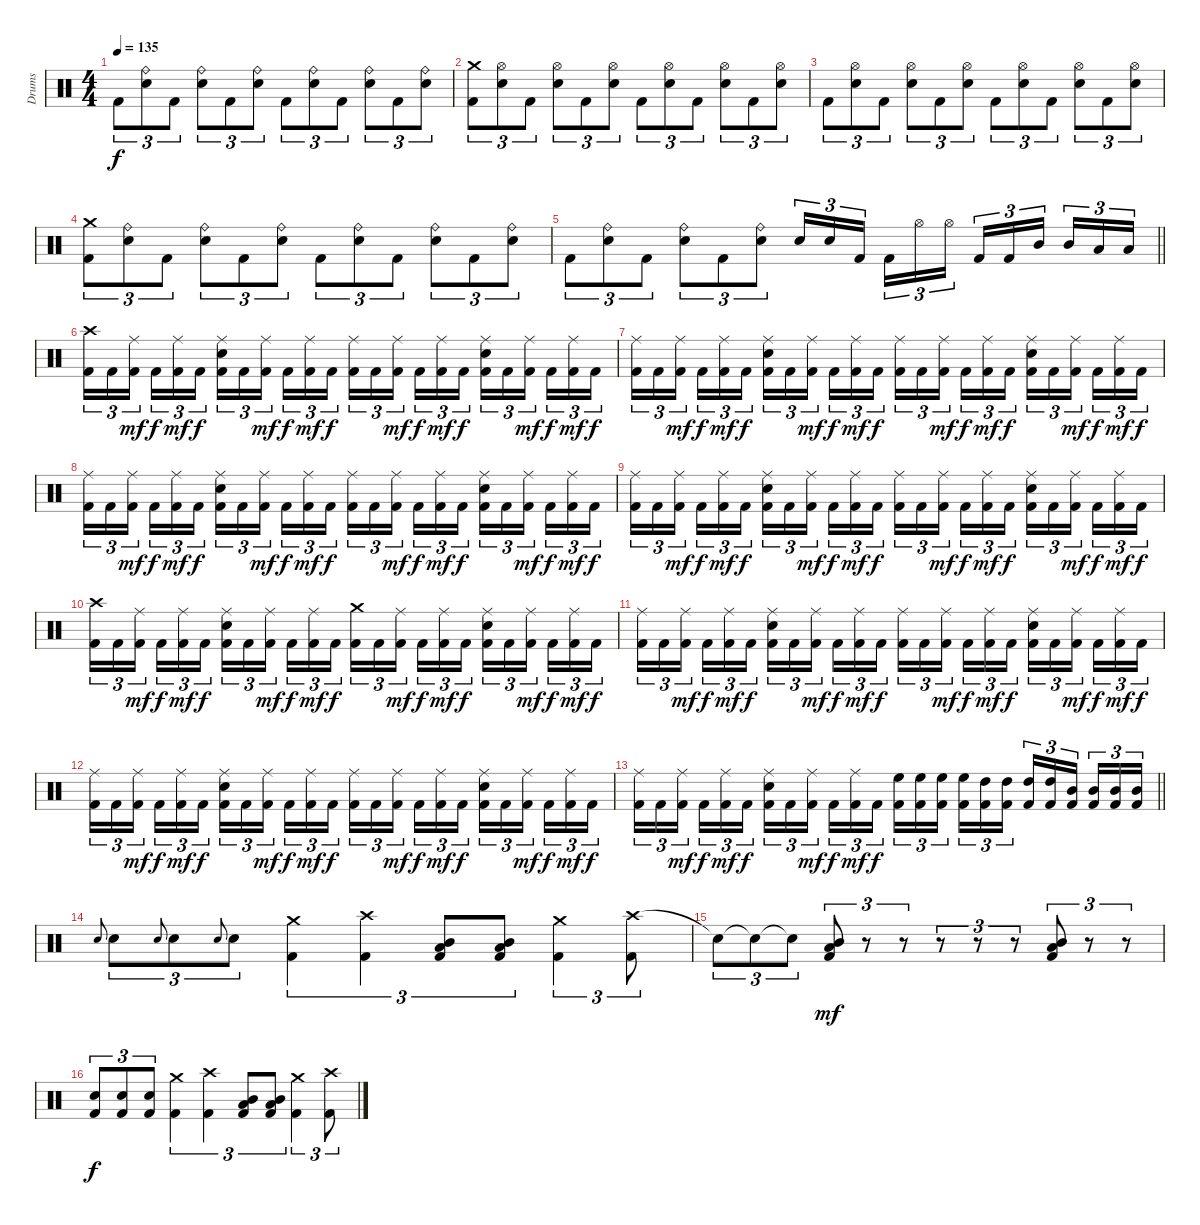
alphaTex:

\track ("Drums" "Drums") {instrument percussion}
\staff {score}
\articulation defaults
\ts (4 4)
\tempo 135
\clef neutral
\ks c "Kick (hit) 2".8{tu (3 2) dy f}
("Ride (bell)" "Electric Snare (hit)").8{tu (3 2)} "Kick (hit) 2".8{tu (3 2)} ("Ride (bell)" "Electric Snare (hit)").8{tu (3 2)} "Kick (hit) 2".8{tu (3 2)} ("Ride (bell)" "Electric Snare (hit)").8{tu (3 2)} "Kick (hit) 2".8{tu (3 2)} ("Ride (bell)" "Electric Snare (hit)").8{tu (3 2)} "Kick (hit) 2".8{tu (3 2)} ("Ride (bell)" "Electric Snare (hit)").8{tu (3 2)} "Kick (hit) 2".8{tu (3 2)} ("Ride (bell)" "Electric Snare (hit)").8{tu (3 2)} |
("Crash medium (hit)" "Kick (hit) 2").8{tu (3 2)} ("Hi-Hat (open)" "Electric Snare (hit)").8{tu (3 2)} "Kick (hit) 2".8{tu (3 2)} ("Hi-Hat (open)" "Electric Snare (hit)").8{tu (3 2)} "Kick (hit) 2".8{tu (3 2)} ("Hi-Hat (open)" "Electric Snare (hit)").8{tu (3 2)} "Kick (hit) 2".8{tu (3 2)} ("Hi-Hat (open)" "Electric Snare (hit)").8{tu (3 2)} "Kick (hit) 2".8{tu (3 2)} ("Hi-Hat (open)" "Electric Snare (hit)").8{tu (3 2)} "Kick (hit) 2".8{tu (3 2)} ("Hi-Hat (open)" "Electric Snare (hit)").8{tu (3 2)} |
"Kick (hit) 2".8{tu (3 2)} ("Hi-Hat (open)" "Electric Snare (hit)").8{tu (3 2)} "Kick (hit) 2".8{tu (3 2)} ("Hi-Hat (open)" "Electric Snare (hit)").8{tu (3 2)} "Kick (hit) 2".8{tu (3 2)} ("Hi-Hat (open)" "Electric Snare (hit)").8{tu (3 2)} "Kick (hit) 2".8{tu (3 2)} ("Hi-Hat (open)" "Electric Snare (hit)").8{tu (3 2)} "Kick (hit) 2".8{tu (3 2)} ("Hi-Hat (open)" "Electric Snare (hit)").8{tu (3 2)} "Kick (hit) 2".8{tu (3 2)} ("Hi-Hat (open)" "Electric Snare (hit)").8{tu (3 2)} |
("Crash medium (hit)" "Kick (hit) 2").8{tu (3 2)} ("Ride (bell)" "Electric Snare (hit)").8{tu (3 2)} "Kick (hit) 2".8{tu (3 2)} ("Ride (bell)" "Electric Snare (hit)").8{tu (3 2)} "Kick (hit) 2".8{tu (3 2)} ("Ride (bell)" "Electric Snare (hit)").8{tu (3 2)} "Kick (hit) 2".8{tu (3 2)} ("Ride (bell)" "Electric Snare (hit)").8{tu (3 2)} "Kick (hit) 2".8{tu (3 2)} ("Ride (bell)" "Electric Snare (hit)").8{tu (3 2)} "Kick (hit) 2".8{tu (3 2)} ("Ride (bell)" "Electric Snare (hit)").8{tu (3 2)} |
\barLineRight lightlight "Kick (hit) 2".8{tu (3 2)}
("Ride (bell)" "Electric Snare (hit)").8{tu (3 2)} "Kick (hit) 2".8{tu (3 2)} ("Ride (bell)" "Electric Snare (hit)").8{tu (3 2)} "Kick (hit) 2".8{tu (3 2)} ("Ride (bell)" "Electric Snare (hit)").8{tu (3 2)} "Electric Snare (hit)".16{tu (3 2)} "Electric Snare (hit)".16{tu (3 2)} "Kick (hit) 2".16{tu (3 2) beam splitsecondary} "Kick (hit) 2".16{tu (3 2)} "Hi-Hat (open)".16{tu (3 2)} "Hi-Hat (open)".16{tu (3 2)} "Kick (hit) 2".16{tu (3 2)} "Kick (hit) 2".16{tu (3 2)} "Mid Tom (hit)".16{tu (3 2) beam splitsecondary} "Mid Tom (hit)".16{tu (3 2)} "Low Tom (hit)".16{tu (3 2)} "Low Tom (hit)".16{tu (3 2)} |
("Crash high (hit)" "Kick (hit) 2").16{tu (3 2)} "Kick (hit) 2".16{tu (3 2)} ("Ride (middle)" "Kick (hit) 2").16{tu (3 2) dy mf beam splitsecondary} "Kick (hit) 2".16{tu (3 2) dy f} ("Ride (middle)" "Kick (hit) 2").16{tu (3 2) dy mf} "Kick (hit) 2".16{tu (3 2) dy f} ("Ride (middle)" "Electric Snare (hit)" "Kick (hit) 2").16{tu (3 2)} "Kick (hit) 2".16{tu (3 2)} ("Ride (middle)" "Kick (hit) 2").16{tu (3 2) dy mf beam splitsecondary} "Kick (hit) 2".16{tu (3 2) dy f} ("Ride (middle)" "Kick (hit) 2").16{tu (3 2) dy mf} "Kick (hit) 2".16{tu (3 2) dy f} ("Ride (middle)" "Kick (hit) 2").16{tu (3 2)} "Kick (hit) 2".16{tu (3 2)} ("Ride (middle)" "Kick (hit) 2").16{tu (3 2) dy mf beam splitsecondary} "Kick (hit) 2".16{tu (3 2) dy f} ("Ride (middle)" "Kick (hit) 2").16{tu (3 2) dy mf} "Kick (hit) 2".16{tu (3 2) dy f} ("Ride (middle)" "Electric Snare (hit)" "Kick (hit) 2").16{tu (3 2)} "Kick (hit) 2".16{tu (3 2)} ("Ride (middle)" "Kick (hit) 2").16{tu (3 2) dy mf beam splitsecondary} "Kick (hit) 2".16{tu (3 2) dy f} ("Ride (middle)" "Kick (hit) 2").16{tu (3 2) dy mf} "Kick (hit) 2".16{tu (3 2) dy f} |
("Ride (middle)" "Kick (hit) 2").16{tu (3 2)} "Kick (hit) 2".16{tu (3 2)} ("Ride (middle)" "Kick (hit) 2").16{tu (3 2) dy mf beam splitsecondary} "Kick (hit) 2".16{tu (3 2) dy f} ("Ride (middle)" "Kick (hit) 2").16{tu (3 2) dy mf} "Kick (hit) 2".16{tu (3 2) dy f} ("Ride (middle)" "Electric Snare (hit)" "Kick (hit) 2").16{tu (3 2)} "Kick (hit) 2".16{tu (3 2)} ("Ride (middle)" "Kick (hit) 2").16{tu (3 2) dy mf beam splitsecondary} "Kick (hit) 2".16{tu (3 2) dy f} ("Ride (middle)" "Kick (hit) 2").16{tu (3 2) dy mf} "Kick (hit) 2".16{tu (3 2) dy f} ("Ride (middle)" "Kick (hit) 2").16{tu (3 2)} "Kick (hit) 2".16{tu (3 2)} ("Ride (middle)" "Kick (hit) 2").16{tu (3 2) dy mf beam splitsecondary} "Kick (hit) 2".16{tu (3 2) dy f} ("Ride (middle)" "Kick (hit) 2").16{tu (3 2) dy mf} "Kick (hit) 2".16{tu (3 2) dy f} ("Ride (middle)" "Electric Snare (hit)" "Kick (hit) 2").16{tu (3 2)} "Kick (hit) 2".16{tu (3 2)} ("Ride (middle)" "Kick (hit) 2").16{tu (3 2) dy mf beam splitsecondary} "Kick (hit) 2".16{tu (3 2) dy f} ("Ride (middle)" "Kick (hit) 2").16{tu (3 2) dy mf} "Kick (hit) 2".16{tu (3 2) dy f} |
("Ride (middle)" "Kick (hit) 2").16{tu (3 2)} "Kick (hit) 2".16{tu (3 2)} ("Ride (middle)" "Kick (hit) 2").16{tu (3 2) dy mf beam splitsecondary} "Kick (hit) 2".16{tu (3 2) dy f} ("Ride (middle)" "Kick (hit) 2").16{tu (3 2) dy mf} "Kick (hit) 2".16{tu (3 2) dy f} ("Ride (middle)" "Electric Snare (hit)" "Kick (hit) 2").16{tu (3 2)} "Kick (hit) 2".16{tu (3 2)} ("Ride (middle)" "Kick (hit) 2").16{tu (3 2) dy mf beam splitsecondary} "Kick (hit) 2".16{tu (3 2) dy f} ("Ride (middle)" "Kick (hit) 2").16{tu (3 2) dy mf} "Kick (hit) 2".16{tu (3 2) dy f} ("Ride (middle)" "Kick (hit) 2").16{tu (3 2)} "Kick (hit) 2".16{tu (3 2)} ("Ride (middle)" "Kick (hit) 2").16{tu (3 2) dy mf beam splitsecondary} "Kick (hit) 2".16{tu (3 2) dy f} ("Ride (middle)" "Kick (hit) 2").16{tu (3 2) dy mf} "Kick (hit) 2".16{tu (3 2) dy f} ("Ride (middle)" "Electric Snare (hit)" "Kick (hit) 2").16{tu (3 2)} "Kick (hit) 2".16{tu (3 2)} ("Ride (middle)" "Kick (hit) 2").16{tu (3 2) dy mf beam splitsecondary} "Kick (hit) 2".16{tu (3 2) dy f} ("Ride (middle)" "Kick (hit) 2").16{tu (3 2) dy mf} "Kick (hit) 2".16{tu (3 2) dy f} |
("Ride (middle)" "Kick (hit) 2").16{tu (3 2)} "Kick (hit) 2".16{tu (3 2)} ("Ride (middle)" "Kick (hit) 2").16{tu (3 2) dy mf beam splitsecondary} "Kick (hit) 2".16{tu (3 2) dy f} ("Ride (middle)" "Kick (hit) 2").16{tu (3 2) dy mf} "Kick (hit) 2".16{tu (3 2) dy f} ("Ride (middle)" "Electric Snare (hit)" "Kick (hit) 2").16{tu (3 2)} "Kick (hit) 2".16{tu (3 2)} ("Ride (middle)" "Kick (hit) 2").16{tu (3 2) dy mf beam splitsecondary} "Kick (hit) 2".16{tu (3 2) dy f} ("Ride (middle)" "Kick (hit) 2").16{tu (3 2) dy mf} "Kick (hit) 2".16{tu (3 2) dy f} ("Ride (middle)" "Kick (hit) 2").16{tu (3 2)} "Kick (hit) 2".16{tu (3 2)} ("Ride (middle)" "Kick (hit) 2").16{tu (3 2) dy mf beam splitsecondary} "Kick (hit) 2".16{tu (3 2) dy f} ("Ride (middle)" "Kick (hit) 2").16{tu (3 2) dy mf} "Kick (hit) 2".16{tu (3 2) dy f} ("Ride (middle)" "Electric Snare (hit)" "Kick (hit) 2").16{tu (3 2)} "Kick (hit) 2".16{tu (3 2)} ("Ride (middle)" "Kick (hit) 2").16{tu (3 2) dy mf beam splitsecondary} "Kick (hit) 2".16{tu (3 2) dy f} ("Ride (middle)" "Kick (hit) 2").16{tu (3 2) dy mf} "Kick (hit) 2".16{tu (3 2) dy f} |
("Crash high (hit)" "Kick (hit) 2").16{tu (3 2)} "Kick (hit) 2".16{tu (3 2)} ("Ride (middle)" "Kick (hit) 2").16{tu (3 2) dy mf beam splitsecondary} "Kick (hit) 2".16{tu (3 2) dy f} ("Ride (middle)" "Kick (hit) 2").16{tu (3 2) dy mf} "Kick (hit) 2".16{tu (3 2) dy f} ("Ride (middle)" "Electric Snare (hit)" "Kick (hit) 2").16{tu (3 2)} "Kick (hit) 2".16{tu (3 2)} ("Ride (middle)" "Kick (hit) 2").16{tu (3 2) dy mf beam splitsecondary} "Kick (hit) 2".16{tu (3 2) dy f} ("Ride (middle)" "Kick (hit) 2").16{tu (3 2) dy mf} "Kick (hit) 2".16{tu (3 2) dy f} ("Crash medium (hit)" "Kick (hit) 2").16{tu (3 2)} "Kick (hit) 2".16{tu (3 2)} ("Ride (middle)" "Kick (hit) 2").16{tu (3 2) dy mf beam splitsecondary} "Kick (hit) 2".16{tu (3 2) dy f} ("Ride (middle)" "Kick (hit) 2").16{tu (3 2) dy mf} "Kick (hit) 2".16{tu (3 2) dy f} ("Ride (middle)" "Electric Snare (hit)" "Kick (hit) 2").16{tu (3 2)} "Kick (hit) 2".16{tu (3 2)} ("Ride (middle)" "Kick (hit) 2").16{tu (3 2) dy mf beam splitsecondary} "Kick (hit) 2".16{tu (3 2) dy f} ("Ride (middle)" "Kick (hit) 2").16{tu (3 2) dy mf} "Kick (hit) 2".16{tu (3 2) dy f} |
("Ride (middle)" "Kick (hit) 2").16{tu (3 2)} "Kick (hit) 2".16{tu (3 2)} ("Ride (middle)" "Kick (hit) 2").16{tu (3 2) dy mf beam splitsecondary} "Kick (hit) 2".16{tu (3 2) dy f} ("Ride (middle)" "Kick (hit) 2").16{tu (3 2) dy mf} "Kick (hit) 2".16{tu (3 2) dy f} ("Ride (middle)" "Electric Snare (hit)" "Kick (hit) 2").16{tu (3 2)} "Kick (hit) 2".16{tu (3 2)} ("Ride (middle)" "Kick (hit) 2").16{tu (3 2) dy mf beam splitsecondary} "Kick (hit) 2".16{tu (3 2) dy f} ("Ride (middle)" "Kick (hit) 2").16{tu (3 2) dy mf} "Kick (hit) 2".16{tu (3 2) dy f} ("Ride (middle)" "Kick (hit) 2").16{tu (3 2)} "Kick (hit) 2".16{tu (3 2)} ("Ride (middle)" "Kick (hit) 2").16{tu (3 2) dy mf beam splitsecondary} "Kick (hit) 2".16{tu (3 2) dy f} ("Ride (middle)" "Kick (hit) 2").16{tu (3 2) dy mf} "Kick (hit) 2".16{tu (3 2) dy f} ("Ride (middle)" "Electric Snare (hit)" "Kick (hit) 2").16{tu (3 2)} "Kick (hit) 2".16{tu (3 2)} ("Ride (middle)" "Kick (hit) 2").16{tu (3 2) dy mf beam splitsecondary} "Kick (hit) 2".16{tu (3 2) dy f} ("Ride (middle)" "Kick (hit) 2").16{tu (3 2) dy mf} "Kick (hit) 2".16{tu (3 2) dy f} |
("Ride (middle)" "Kick (hit) 2").16{tu (3 2)} "Kick (hit) 2".16{tu (3 2)} ("Ride (middle)" "Kick (hit) 2").16{tu (3 2) dy mf beam splitsecondary} "Kick (hit) 2".16{tu (3 2) dy f} ("Ride (middle)" "Kick (hit) 2").16{tu (3 2) dy mf} "Kick (hit) 2".16{tu (3 2) dy f} ("Ride (middle)" "Electric Snare (hit)" "Kick (hit) 2").16{tu (3 2)} "Kick (hit) 2".16{tu (3 2)} ("Ride (middle)" "Kick (hit) 2").16{tu (3 2) dy mf beam splitsecondary} "Kick (hit) 2".16{tu (3 2) dy f} ("Ride (middle)" "Kick (hit) 2").16{tu (3 2) dy mf} "Kick (hit) 2".16{tu (3 2) dy f} ("Ride (middle)" "Kick (hit) 2").16{tu (3 2)} "Kick (hit) 2".16{tu (3 2)} ("Ride (middle)" "Kick (hit) 2").16{tu (3 2) dy mf beam splitsecondary} "Kick (hit) 2".16{tu (3 2) dy f} ("Ride (middle)" "Kick (hit) 2").16{tu (3 2) dy mf} "Kick (hit) 2".16{tu (3 2) dy f} ("Ride (middle)" "Electric Snare (hit)" "Kick (hit) 2").16{tu (3 2)} "Kick (hit) 2".16{tu (3 2)} ("Ride (middle)" "Kick (hit) 2").16{tu (3 2) dy mf beam splitsecondary} "Kick (hit) 2".16{tu (3 2) dy f} ("Ride (middle)" "Kick (hit) 2").16{tu (3 2) dy mf} "Kick (hit) 2".16{tu (3 2) dy f} |
\barLineRight lightlight
("Ride (middle)" "Kick (hit) 2").16{tu (3 2)} "Kick (hit) 2".16{tu (3 2)} ("Ride (middle)" "Kick (hit) 2").16{tu (3 2) dy mf beam splitsecondary} "Kick (hit) 2".16{tu (3 2) dy f} ("Ride (middle)" "Kick (hit) 2").16{tu (3 2) dy mf} "Kick (hit) 2".16{tu (3 2) dy f} ("Ride (middle)" "Electric Snare (hit)" "Kick (hit) 2").16{tu (3 2)} "Kick (hit) 2".16{tu (3 2)} ("Ride (middle)" "Kick (hit) 2").16{tu (3 2) dy mf beam splitsecondary} "Kick (hit) 2".16{tu (3 2) dy f} ("Ride (middle)" "Kick (hit) 2").16{tu (3 2) dy mf} "Kick (hit) 2".16{tu (3 2) dy f} ("High Floor Tom (hit)" "Kick (hit) 2").16{tu (3 2)} ("High Floor Tom (hit)" "Kick (hit) 2").16{tu (3 2)} ("High Floor Tom (hit)" "Kick (hit) 2").16{tu (3 2) beam splitsecondary} ("High Floor Tom (hit)" "Kick (hit) 2").16{tu (3 2)} ("High Tom (hit)" "Kick (hit) 2").16{tu (3 2)} ("High Tom (hit)" "Kick (hit) 2").16{tu (3 2)} ("High Tom (hit)" "Kick (hit) 2").16{tu (3 2)} ("High Tom (hit)" "Kick (hit) 2").16{tu (3 2)} ("Mid Tom (hit)" "Kick (hit) 2").16{tu (3 2) beam splitsecondary} ("Mid Tom (hit)" "Kick (hit) 2").16{tu (3 2)} ("Mid Tom (hit)" "Kick (hit) 2").16{tu (3 2)} ("Mid Tom (hit)" "Kick (hit) 2").16{tu (3 2)} |
"Snare (hit) 2".8{gr onbeat} "Snare (hit) 2".8{tu (3 2)} "Snare (hit) 2".8{gr onbeat} "Snare (hit) 2".8{tu (3 2)} "Snare (hit) 2".8{gr onbeat} "Snare (hit) 2".8{tu (3 2)} ("Crash medium (hit)" "Kick (hit) 2").4{tu (3 2)} ("Crash high (hit)" "Kick (hit) 2").4{tu (3 2)} ("Mid Tom (hit)" "Low Tom (hit)" "Kick (hit) 2").8{tu (3 2)} ("Mid Tom (hit)" "Low Tom (hit)" "Kick (hit) 2").8{tu (3 2)} ("Crash medium (hit)" "Kick (hit) 2").4{tu (3 2)} ("Crash high (hit)" "Kick (hit) 2").8{tu (3 2)} |
"Snare (hit)"{t}.8{tu (3 2)} "Snare (hit)"{t}.8{tu (3 2)} "Snare (hit)"{t}.8{tu (3 2)} ("Low Tom (hit)" "Mid Tom (hit)" "Kick (hit) 2").8{tu (3 2) dy mf} r.8{tu (3 2)} r.8{tu (3 2)} r.8{tu (3 2)} r.8{tu (3 2)} r.8{tu (3 2)} ("Low Tom (hit)" "Mid Tom (hit)" "Kick (hit) 2").8{tu (3 2)} r.8{tu (3 2)} r.8{tu (3 2)} |
("Snare (hit) 2" "Kick (hit) 2").8{tu (3 2) dy f} ("Snare (hit) 2" "Kick (hit) 2").8{tu (3 2)} ("Snare (hit) 2" "Kick (hit) 2").8{tu (3 2)} ("Crash medium (hit)" "Kick (hit) 2").4{tu (3 2)} ("Crash high (hit)" "Kick (hit) 2").4{tu (3 2)} ("Mid Tom (hit)" "Low Tom (hit)" "Kick (hit) 2").8{tu (3 2)} ("Mid Tom (hit)" "Low Tom (hit)" "Kick (hit) 2").8{tu (3 2)} ("Crash medium (hit)" "Kick (hit) 2").4{tu (3 2)} ("Crash high (hit)" "Kick (hit) 2").8{tu (3 2)}
